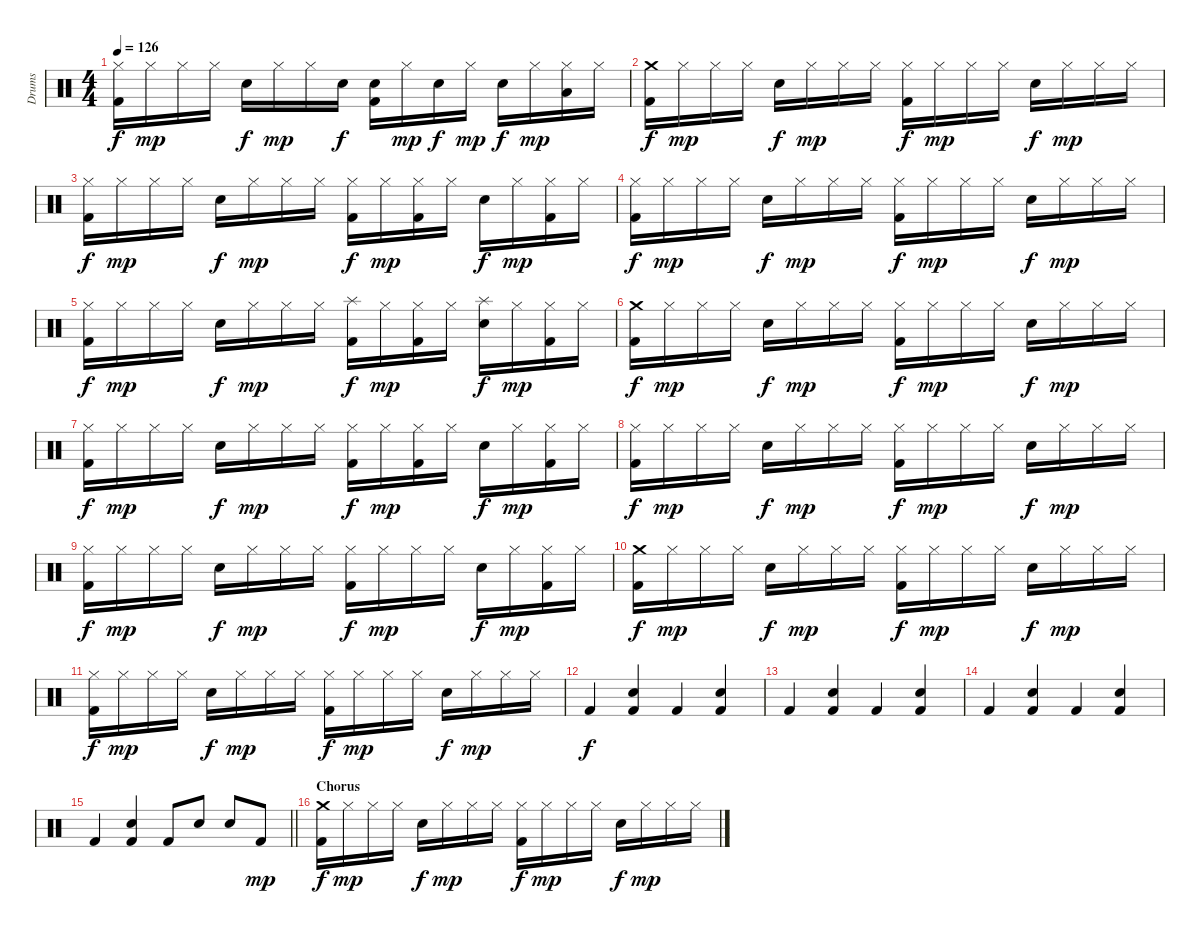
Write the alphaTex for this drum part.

\track ("Drums" "Drums") {instrument percussion}
\staff {score}
\articulation defaults
\ts (4 4)
\tempo 126
\clef neutral
\ks c
("Hi-Hat (closed)" "Kick (hit) 2").16{dy f} "Hi-Hat (closed)".16{dy mp} "Hi-Hat (closed)".16 "Hi-Hat (closed)".16 "Snare (hit) 2".16{dy f} "Hi-Hat (closed)".16{dy mp} "Hi-Hat (closed)".16 "Snare (hit) 2".16{dy f} ("Snare (hit) 2" "Kick (hit) 2").16 "Hi-Hat (closed)".16{dy mp} "Snare (hit) 2".16{dy f} "Hi-Hat (closed)".16{dy mp} "Snare (hit) 2".16{dy f} "Hi-Hat (closed)".16{dy mp} ("Hi-Hat (closed)" "Low Tom (hit)").16 "Hi-Hat (closed)".16 |
("Crash medium (hit)" "Kick (hit) 2").16{dy f} "Hi-Hat (closed)".16{dy mp} "Hi-Hat (closed)".16 "Hi-Hat (closed)".16 "Snare (hit) 2".16{dy f} "Hi-Hat (closed)".16{dy mp} "Hi-Hat (closed)".16 "Hi-Hat (closed)".16 ("Hi-Hat (closed)" "Kick (hit) 2").16{dy f} "Hi-Hat (closed)".16{dy mp} "Hi-Hat (closed)".16 "Hi-Hat (closed)".16 "Snare (hit) 2".16{dy f} "Hi-Hat (closed)".16{dy mp} "Hi-Hat (closed)".16 "Hi-Hat (closed)".16 |
("Hi-Hat (closed)" "Kick (hit) 2").16{dy f} "Hi-Hat (closed)".16{dy mp} "Hi-Hat (closed)".16 "Hi-Hat (closed)".16 "Snare (hit) 2".16{dy f} "Hi-Hat (closed)".16{dy mp} "Hi-Hat (closed)".16 "Hi-Hat (closed)".16 ("Hi-Hat (closed)" "Kick (hit) 2").16{dy f} "Hi-Hat (closed)".16{dy mp} ("Hi-Hat (closed)" "Kick (hit) 2").16 "Hi-Hat (closed)".16 "Snare (hit) 2".16{dy f} "Hi-Hat (closed)".16{dy mp} ("Hi-Hat (closed)" "Kick (hit) 2").16 "Hi-Hat (closed)".16 |
("Hi-Hat (closed)" "Kick (hit) 2").16{dy f} "Hi-Hat (closed)".16{dy mp} "Hi-Hat (closed)".16 "Hi-Hat (closed)".16 "Snare (hit) 2".16{dy f} "Hi-Hat (closed)".16{dy mp} "Hi-Hat (closed)".16 "Hi-Hat (closed)".16 ("Hi-Hat (closed)" "Kick (hit) 2").16{dy f} "Hi-Hat (closed)".16{dy mp} "Hi-Hat (closed)".16 "Hi-Hat (closed)".16 "Snare (hit) 2".16{dy f} "Hi-Hat (closed)".16{dy mp} "Hi-Hat (closed)".16 "Hi-Hat (closed)".16 |
("Hi-Hat (closed)" "Kick (hit) 2").16{dy f} "Hi-Hat (closed)".16{dy mp} "Hi-Hat (closed)".16 "Hi-Hat (closed)".16 "Snare (hit) 2".16{dy f} "Hi-Hat (closed)".16{dy mp} "Hi-Hat (closed)".16 "Hi-Hat (closed)".16 ("Splash (hit)" "Kick (hit) 2").16{dy f} "Hi-Hat (closed)".16{dy mp} ("Hi-Hat (closed)" "Kick (hit) 2").16 "Hi-Hat (closed)".16 ("Splash (hit)" "Snare (hit) 2").16{dy f} "Hi-Hat (closed)".16{dy mp} ("Hi-Hat (closed)" "Kick (hit) 2").16 "Hi-Hat (closed)".16 |
("Crash medium (hit)" "Kick (hit) 2").16{dy f} "Hi-Hat (closed)".16{dy mp} "Hi-Hat (closed)".16 "Hi-Hat (closed)".16 "Snare (hit) 2".16{dy f} "Hi-Hat (closed)".16{dy mp} "Hi-Hat (closed)".16 "Hi-Hat (closed)".16 ("Hi-Hat (closed)" "Kick (hit) 2").16{dy f} "Hi-Hat (closed)".16{dy mp} "Hi-Hat (closed)".16 "Hi-Hat (closed)".16 "Snare (hit) 2".16{dy f} "Hi-Hat (closed)".16{dy mp} "Hi-Hat (closed)".16 "Hi-Hat (closed)".16 |
("Hi-Hat (closed)" "Kick (hit) 2").16{dy f} "Hi-Hat (closed)".16{dy mp} "Hi-Hat (closed)".16 "Hi-Hat (closed)".16 "Snare (hit) 2".16{dy f} "Hi-Hat (closed)".16{dy mp} "Hi-Hat (closed)".16 "Hi-Hat (closed)".16 ("Hi-Hat (closed)" "Kick (hit) 2").16{dy f} "Hi-Hat (closed)".16{dy mp} ("Hi-Hat (closed)" "Kick (hit) 2").16 "Hi-Hat (closed)".16 "Snare (hit) 2".16{dy f} "Hi-Hat (closed)".16{dy mp} ("Hi-Hat (closed)" "Kick (hit) 2").16 "Hi-Hat (closed)".16 |
("Hi-Hat (closed)" "Kick (hit) 2").16{dy f} "Hi-Hat (closed)".16{dy mp} "Hi-Hat (closed)".16 "Hi-Hat (closed)".16 "Snare (hit) 2".16{dy f} "Hi-Hat (closed)".16{dy mp} "Hi-Hat (closed)".16 "Hi-Hat (closed)".16 ("Hi-Hat (closed)" "Kick (hit) 2").16{dy f} "Hi-Hat (closed)".16{dy mp} "Hi-Hat (closed)".16 "Hi-Hat (closed)".16 "Snare (hit) 2".16{dy f} "Hi-Hat (closed)".16{dy mp} "Hi-Hat (closed)".16 "Hi-Hat (closed)".16 |
("Hi-Hat (closed)" "Kick (hit) 2").16{dy f} "Hi-Hat (closed)".16{dy mp} "Hi-Hat (closed)".16 "Hi-Hat (closed)".16 "Snare (hit) 2".16{dy f} "Hi-Hat (closed)".16{dy mp} "Hi-Hat (closed)".16 "Hi-Hat (closed)".16 ("Hi-Hat (closed)" "Kick (hit) 2").16{dy f} "Hi-Hat (closed)".16{dy mp} "Hi-Hat (closed)".16 "Hi-Hat (closed)".16 "Snare (hit) 2".16{dy f} "Hi-Hat (closed)".16{dy mp} ("Hi-Hat (closed)" "Kick (hit) 2").16 "Hi-Hat (closed)".16 |
("Crash medium (hit)" "Kick (hit) 2").16{dy f} "Hi-Hat (closed)".16{dy mp} "Hi-Hat (closed)".16 "Hi-Hat (closed)".16 "Snare (hit) 2".16{dy f} "Hi-Hat (closed)".16{dy mp} "Hi-Hat (closed)".16 "Hi-Hat (closed)".16 ("Hi-Hat (closed)" "Kick (hit) 2").16{dy f} "Hi-Hat (closed)".16{dy mp} "Hi-Hat (closed)".16 "Hi-Hat (closed)".16 "Snare (hit) 2".16{dy f} "Hi-Hat (closed)".16{dy mp} "Hi-Hat (closed)".16 "Hi-Hat (closed)".16 |
("Hi-Hat (closed)" "Kick (hit) 2").16{dy f} "Hi-Hat (closed)".16{dy mp} "Hi-Hat (closed)".16 "Hi-Hat (closed)".16 "Snare (hit) 2".16{dy f} "Hi-Hat (closed)".16{dy mp} "Hi-Hat (closed)".16 "Hi-Hat (closed)".16 ("Hi-Hat (closed)" "Kick (hit) 2").16{dy f} "Hi-Hat (closed)".16{dy mp} "Hi-Hat (closed)".16 "Hi-Hat (closed)".16 "Snare (hit) 2".16{dy f} "Hi-Hat (closed)".16{dy mp} "Hi-Hat (closed)".16 "Hi-Hat (closed)".16 |
"Kick (hit) 2".4{dy f} ("Snare (hit) 2" "Kick (hit) 2").4 "Kick (hit) 2".4 ("Snare (hit) 2" "Kick (hit) 2").4 |
"Kick (hit) 2".4 ("Snare (hit) 2" "Kick (hit) 2").4 "Kick (hit) 2".4 ("Snare (hit) 2" "Kick (hit) 2").4 |
"Kick (hit) 2".4 ("Snare (hit) 2" "Kick (hit) 2").4 "Kick (hit) 2".4 ("Snare (hit) 2" "Kick (hit) 2").4 |
\barLineRight lightlight "Kick (hit) 2".4
("Snare (hit) 2" "Kick (hit) 2").4 "Kick (hit) 2".8 "Snare (hit) 2".8 "Snare (hit) 2".8 "Kick (hit) 2".8{dy mp} |
\section ("" "Chorus")
("Crash medium (hit)" "Kick (hit) 2").16{dy f} "Hi-Hat (closed)".16{dy mp} "Hi-Hat (closed)".16 "Hi-Hat (closed)".16 "Snare (hit) 2".16{dy f} "Hi-Hat (closed)".16{dy mp} "Hi-Hat (closed)".16 "Hi-Hat (closed)".16 ("Hi-Hat (closed)" "Kick (hit) 2").16{dy f} "Hi-Hat (closed)".16{dy mp} "Hi-Hat (closed)".16 "Hi-Hat (closed)".16 "Snare (hit) 2".16{dy f} "Hi-Hat (closed)".16{dy mp} "Hi-Hat (closed)".16 "Hi-Hat (closed)".16
